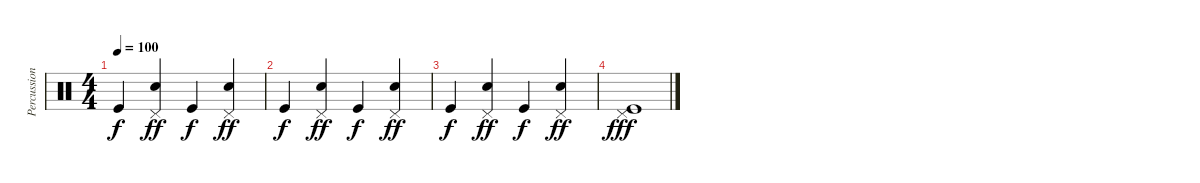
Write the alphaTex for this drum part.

\track ("Percussion" "Percussion") {instrument percussion}
\staff {score}
\articulation defaults
\ts (4 4)
\tempo 100
\clef neutral
\ks c "Kick (hit)".4{dy f}
("Snare (hit) 2" "Pedal Hi-Hat (hit)").4{dy ff} "Kick (hit)".4{dy f} ("Snare (hit) 2" "Pedal Hi-Hat (hit)").4{dy ff} |
"Kick (hit)".4{dy f} ("Snare (hit) 2" "Pedal Hi-Hat (hit)").4{dy ff} "Kick (hit)".4{dy f} ("Snare (hit) 2" "Pedal Hi-Hat (hit)").4{dy ff} |
"Kick (hit)".4{dy f} ("Snare (hit) 2" "Pedal Hi-Hat (hit)").4{dy ff} "Kick (hit)".4{dy f} ("Snare (hit) 2" "Pedal Hi-Hat (hit)").4{dy ff} |
("Pedal Hi-Hat (hit)" "Kick (hit)").1{dy fff}
